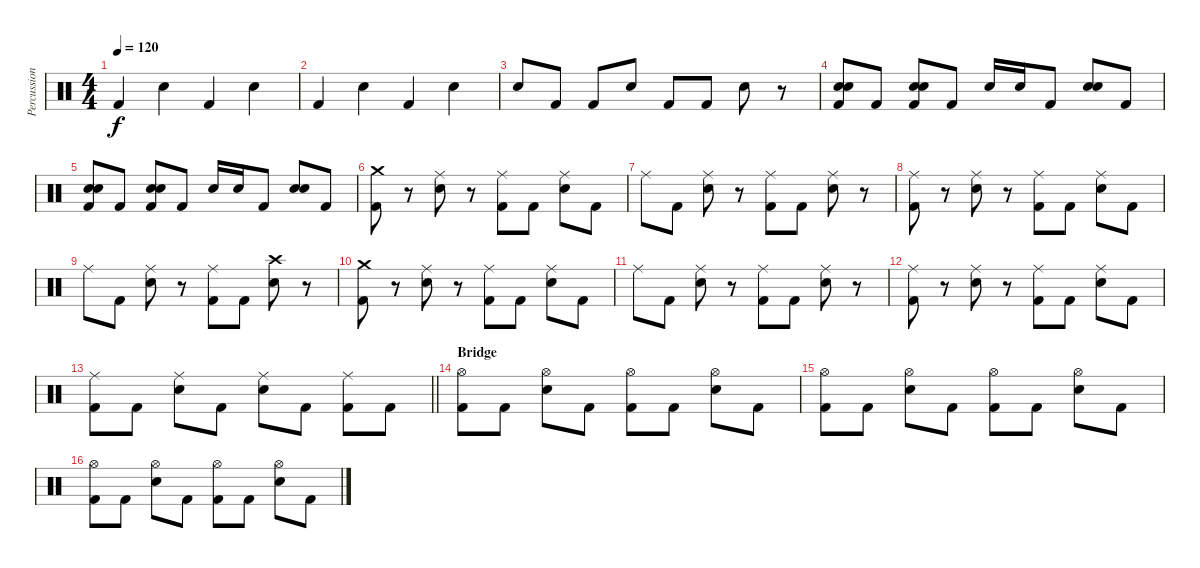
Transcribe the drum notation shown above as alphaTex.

\track ("Percussion" "Percussion") {instrument percussion}
\staff {score}
\articulation defaults
\ts (4 4)
\tempo 120
\clef neutral
\ks c "Kick (hit) 2".4{dy f} "Snare (hit) 2".4 "Kick (hit) 2".4 "Snare (hit) 2".4
|
"Kick (hit) 2".4 "Snare (hit) 2".4 "Kick (hit) 2".4 "Snare (hit) 2".4 |
"Snare (hit) 2".8 "Kick (hit) 2".8 "Kick (hit) 2".8 "Snare (hit) 2".8 "Kick (hit) 2".8 "Kick (hit) 2".8 "Snare (hit) 2".8 r.8 |
("Snare (hit) 2" "Snare (hit) 2" "Kick (hit) 2").8 "Kick (hit) 2".8 ("Snare (hit) 2" "Snare (hit) 2" "Kick (hit) 2").8 "Kick (hit) 2".8 "Snare (hit) 2".16 "Snare (hit) 2".16 "Kick (hit) 2".8 ("Snare (hit) 2" "Snare (hit) 2").8 "Kick (hit) 2".8 |
("Snare (hit) 2" "Snare (hit) 2" "Kick (hit) 2").8 "Kick (hit) 2".8 ("Snare (hit) 2" "Snare (hit) 2" "Kick (hit) 2").8 "Kick (hit) 2".8 "Snare (hit) 2".16 "Snare (hit) 2".16 "Kick (hit) 2".8 ("Snare (hit) 2" "Snare (hit) 2").8 "Kick (hit) 2".8 |
("Crash medium (hit)" "Kick (hit) 2").8 r.8 ("Ride (middle)" "Snare (hit) 2").8 r.8 ("Ride (middle)" "Kick (hit) 2").8 "Kick (hit) 2".8 ("Ride (middle)" "Snare (hit) 2").8 "Kick (hit) 2".8 |
"Ride (middle)".8 "Kick (hit) 2".8 ("Ride (middle)" "Snare (hit) 2").8 r.8 ("Ride (middle)" "Kick (hit) 2").8 "Kick (hit) 2".8 ("Ride (middle)" "Snare (hit) 2").8 r.8 |
("Ride (middle)" "Kick (hit) 2").8 r.8 ("Ride (middle)" "Snare (hit) 2").8 r.8 ("Ride (middle)" "Kick (hit) 2").8 "Kick (hit) 2".8 ("Ride (middle)" "Snare (hit) 2").8 "Kick (hit) 2".8 |
"Ride (middle)".8 "Kick (hit) 2".8 ("Ride (middle)" "Snare (hit) 2").8 r.8 ("Ride (middle)" "Kick (hit) 2").8 "Kick (hit) 2".8 ("Crash high (hit)" "Snare (hit) 2").8 r.8 |
("Crash medium (hit)" "Kick (hit) 2").8 r.8 ("Ride (middle)" "Snare (hit) 2").8 r.8 ("Ride (middle)" "Kick (hit) 2").8 "Kick (hit) 2".8 ("Ride (middle)" "Snare (hit) 2").8 "Kick (hit) 2".8 |
"Ride (middle)".8 "Kick (hit) 2".8 ("Ride (middle)" "Snare (hit) 2").8 r.8 ("Ride (middle)" "Kick (hit) 2").8 "Kick (hit) 2".8 ("Ride (middle)" "Snare (hit) 2").8 r.8 |
("Ride (middle)" "Kick (hit) 2").8 r.8 ("Ride (middle)" "Snare (hit) 2").8 r.8 ("Ride (middle)" "Kick (hit) 2").8 "Kick (hit) 2".8 ("Ride (middle)" "Snare (hit) 2").8 "Kick (hit) 2".8 |
\barLineRight lightlight
("Ride (middle)" "Kick (hit) 2").8 "Kick (hit) 2".8 ("Ride (middle)" "Snare (hit) 2").8 "Kick (hit) 2".8 ("Ride (middle)" "Snare (hit) 2").8 "Kick (hit) 2".8 ("Ride (middle)" "Kick (hit) 2").8 "Kick (hit) 2".8 |
\section ("" "Bridge")
("Hi-Hat (open)" "Kick (hit) 2").8 "Kick (hit) 2".8 ("Hi-Hat (open)" "Snare (hit) 2").8 "Kick (hit) 2".8 ("Hi-Hat (open)" "Kick (hit) 2").8 "Kick (hit) 2".8 ("Hi-Hat (open)" "Snare (hit) 2").8 "Kick (hit) 2".8 |
("Hi-Hat (open)" "Kick (hit) 2").8 "Kick (hit) 2".8 ("Hi-Hat (open)" "Snare (hit) 2").8 "Kick (hit) 2".8 ("Hi-Hat (open)" "Kick (hit) 2").8 "Kick (hit) 2".8 ("Hi-Hat (open)" "Snare (hit) 2").8 "Kick (hit) 2".8 |
("Hi-Hat (open)" "Kick (hit) 2").8 "Kick (hit) 2".8 ("Hi-Hat (open)" "Snare (hit) 2").8 "Kick (hit) 2".8 ("Hi-Hat (open)" "Kick (hit) 2").8 "Kick (hit) 2".8 ("Hi-Hat (open)" "Snare (hit) 2").8 "Kick (hit) 2".8
